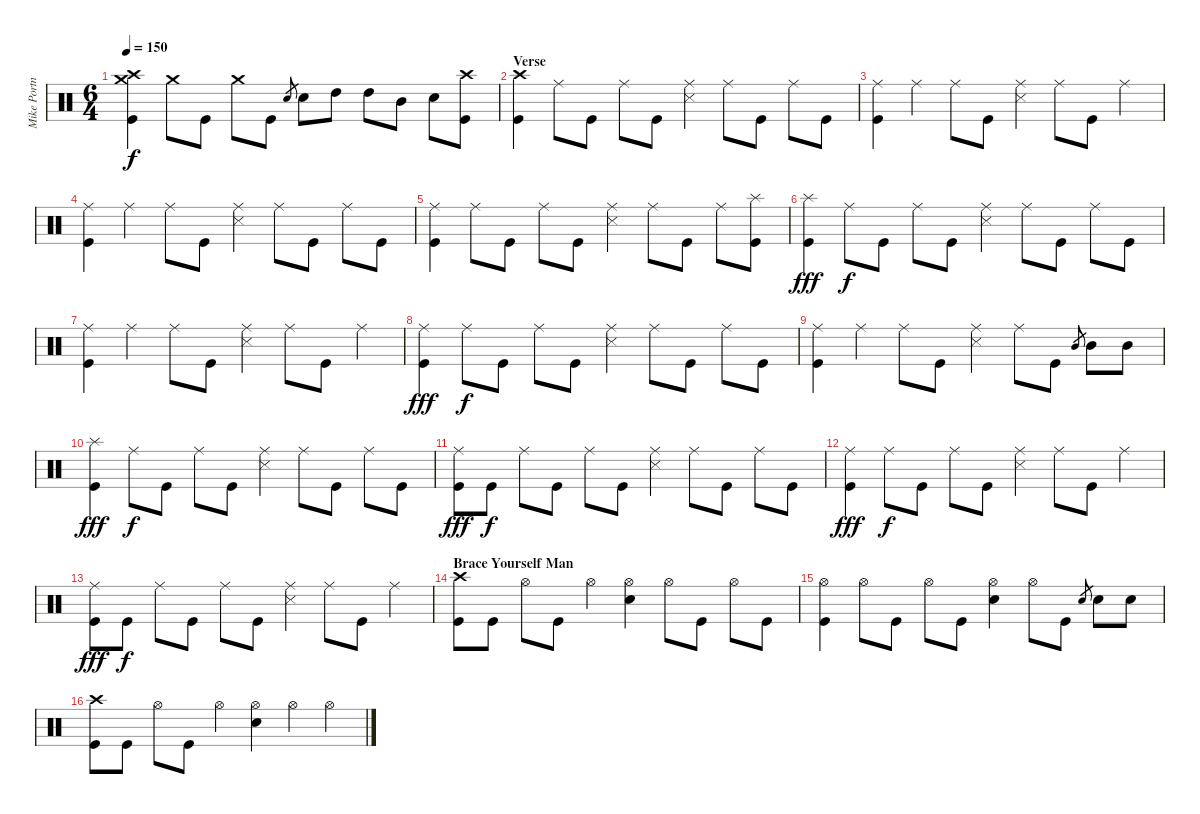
\track ("Mike Portnoy" "Mike Portn") {instrument percussion}
\staff {score}
\articulation defaults
\ts (6 4)
\tempo 150
\clef neutral
\ks c
("Crash high (hit)" "Crash medium (hit)" "Kick (hit)").4{dy f} "Crash medium (hit)".8 "Kick (hit)".8 "Crash medium (hit)".8 "Kick (hit)".8 "Electric Snare (hit)".8{gr} "Electric Snare (hit)".8 "High Tom (hit)".8 "High Tom (hit)".8 "Mid Tom (hit)".8 "Electric Snare (hit)".8 ("Crash high (hit)" "Kick (hit)").8 |
\section ("" "Verse")
("Crash high (hit)" "Kick (hit)").4 "Ride (middle)".8 "Kick (hit)".8 "Ride (middle)".8 "Kick (hit)".8 ("Ride (middle)" "Snare (side stick) 3").4 "Ride (middle)".8 "Kick (hit)".8 "Ride (middle)".8 "Kick (hit)".8 |
("Ride (middle)" "Kick (hit)").4 "Ride (middle)".4 "Ride (middle)".8 "Kick (hit)".8 ("Ride (middle)" "Snare (side stick) 3").4 "Ride (middle)".8 "Kick (hit)".8 "Ride (middle)".4 |
("Ride (middle)" "Kick (hit)").4 "Ride (middle)".4 "Ride (middle)".8 "Kick (hit)".8 ("Ride (middle)" "Snare (side stick) 3").4 "Ride (middle)".8 "Kick (hit)".8 "Ride (middle)".8 "Kick (hit)".8 |
("Ride (middle)" "Kick (hit)").4 "Ride (middle)".8 "Kick (hit)".8 "Ride (middle)".8 "Kick (hit)".8 ("Ride (middle)" "Snare (side stick) 3").4 "Ride (middle)".8 "Kick (hit)".8 "Ride (middle)".8 ("Splash (hit)" "Kick (hit)").8 |
("Splash (hit)" "Kick (hit)").4{dy fff} "Ride (middle)".8{dy f} "Kick (hit)".8 "Ride (middle)".8 "Kick (hit)".8 ("Ride (middle)" "Snare (side stick) 3").4 "Ride (middle)".8 "Kick (hit)".8 "Ride (middle)".8 "Kick (hit)".8 |
("Ride (middle)" "Kick (hit)").4 "Ride (middle)".4 "Ride (middle)".8 "Kick (hit)".8 ("Ride (middle)" "Snare (side stick) 3").4 "Ride (middle)".8 "Kick (hit)".8 "Ride (middle)".4 |
("Ride (middle)" "Kick (hit)").4{dy fff} "Ride (middle)".8{dy f} "Kick (hit)".8 "Ride (middle)".8 "Kick (hit)".8 ("Ride (middle)" "Snare (side stick) 3").4 "Ride (middle)".8 "Kick (hit)".8 "Ride (middle)".8 "Kick (hit)".8 |
("Ride (middle)" "Kick (hit)").4 "Ride (middle)".4 "Ride (middle)".8 "Kick (hit)".8 ("Ride (middle)" "Snare (side stick) 3").4 "Ride (middle)".8 "Kick (hit)".8 "Mid Tom (hit)".8{gr} "Mid Tom (hit)".8 "Mid Tom (hit)".8 |
("Splash (hit)" "Kick (hit)").4{dy fff} "Ride (middle)".8{dy f} "Kick (hit)".8 "Ride (middle)".8 "Kick (hit)".8 ("Ride (middle)" "Snare (side stick) 3").4 "Ride (middle)".8 "Kick (hit)".8 "Ride (middle)".8 "Kick (hit)".8 |
("Ride (middle)" "Kick (hit)").8{dy fff} "Kick (hit)".8{dy f} "Ride (middle)".8 "Kick (hit)".8 "Ride (middle)".8 "Kick (hit)".8 ("Ride (middle)" "Snare (side stick) 3").4 "Ride (middle)".8 "Kick (hit)".8 "Ride (middle)".8 "Kick (hit)".8 |
("Ride (middle)" "Kick (hit)").4{dy fff} "Ride (middle)".8{dy f} "Kick (hit)".8 "Ride (middle)".8 "Kick (hit)".8 ("Ride (middle)" "Snare (side stick) 3").4 "Ride (middle)".8 "Kick (hit)".8 "Ride (middle)".4 |
("Ride (middle)" "Kick (hit)").8{dy fff} "Kick (hit)".8{dy f} "Ride (middle)".8 "Kick (hit)".8 "Ride (middle)".8 "Kick (hit)".8 ("Ride (middle)" "Snare (side stick) 3").4 "Ride (middle)".8 "Kick (hit)".8 "Ride (middle)".4 |
\section ("" "Brace Yourself Man")
("Crash high (hit)" "Kick (hit)").8 "Kick (hit)".8 "Hi-Hat (open)".8 "Kick (hit)".8 "Hi-Hat (open)".4 ("Hi-Hat (open)" "Electric Snare (hit)").4 "Hi-Hat (open)".8 "Kick (hit)".8 "Hi-Hat (open)".8 "Kick (hit)".8 |
("Hi-Hat (open)" "Kick (hit)").4 "Hi-Hat (open)".8 "Kick (hit)".8 "Hi-Hat (open)".8 "Kick (hit)".8 ("Hi-Hat (open)" "Electric Snare (hit)").4 "Hi-Hat (open)".8 "Kick (hit)".8 "Electric Snare (hit)".8{gr} "Electric Snare (hit)".8 "Electric Snare (hit)".8 |
("Crash high (hit)" "Kick (hit)").8 "Kick (hit)".8 "Hi-Hat (open)".8 "Kick (hit)".8 "Hi-Hat (open)".4 ("Hi-Hat (open)" "Electric Snare (hit)").4 "Hi-Hat (open)".4 "Hi-Hat (open)".4
